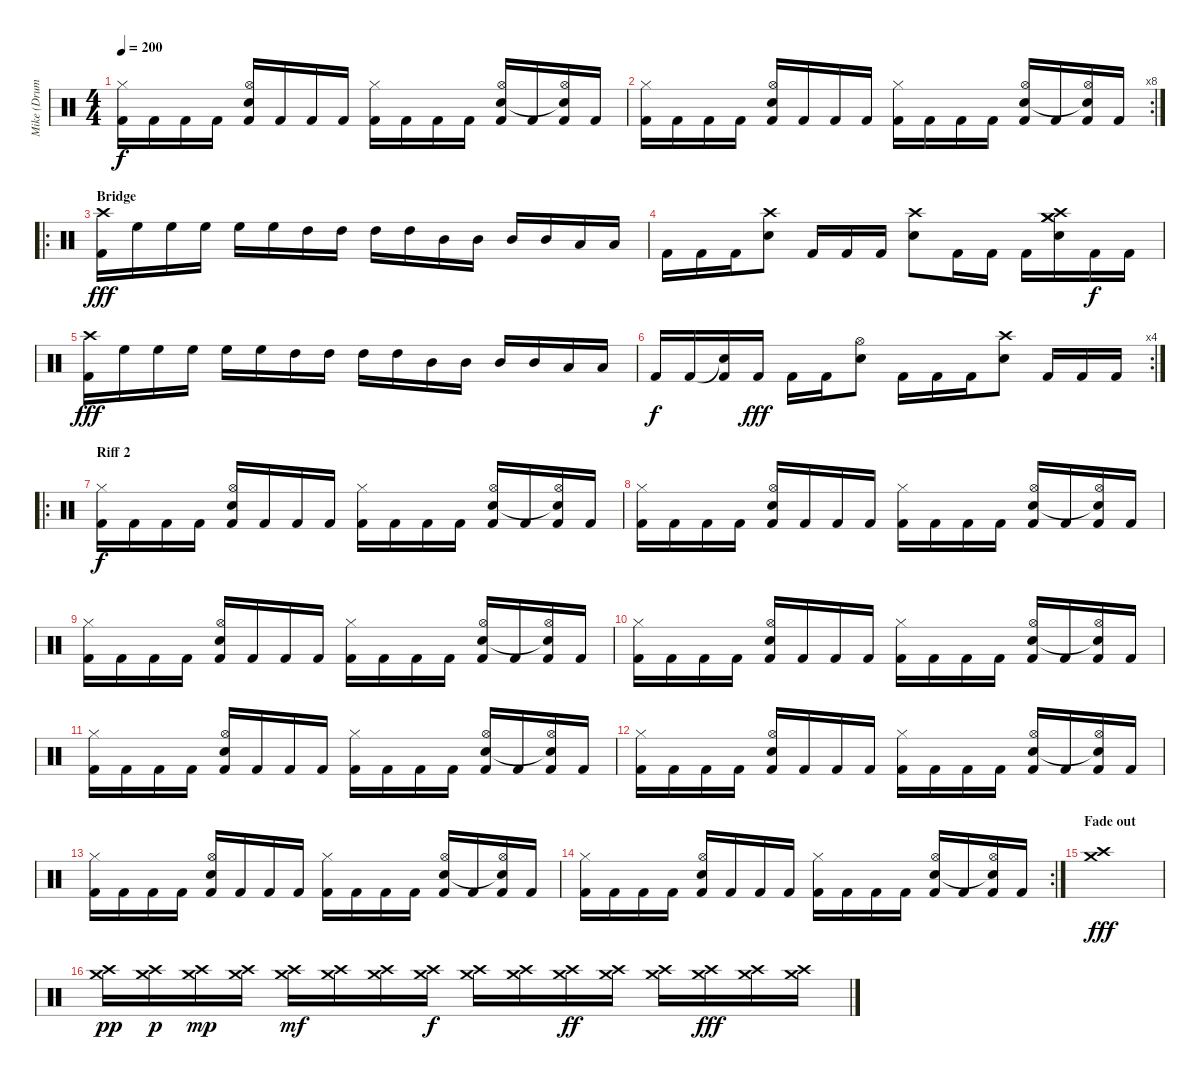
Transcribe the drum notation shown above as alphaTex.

\track ("Mike (Drums)" "Mike (Drum") {instrument percussion}
\staff {score}
\articulation defaults
\ts (4 4)
\tempo 200
\clef neutral
\ks c
("Hi-Hat (closed)" "Kick (hit) 2").16{dy f} "Kick (hit) 2".16 "Kick (hit) 2".16 "Kick (hit) 2".16 ("Hi-Hat (open)" "Snare (hit) 2" "Kick (hit) 2").16 "Kick (hit) 2".16 "Kick (hit) 2".16 "Kick (hit) 2".16 ("Hi-Hat (closed)" "Kick (hit) 2").16 "Kick (hit) 2".16 "Kick (hit) 2".16 "Kick (hit) 2".16 ("Hi-Hat (open)" "Snare (hit) 2" "Kick (hit) 2").16 "Kick (hit) 2".16 ("Hi-Hat (open)" "Snare (hit)"{t} "Kick (hit) 2").16 "Kick (hit) 2".16 |
\rc 8
("Hi-Hat (closed)" "Kick (hit) 2").16 "Kick (hit) 2".16 "Kick (hit) 2".16 "Kick (hit) 2".16 ("Hi-Hat (open)" "Snare (hit) 2" "Kick (hit) 2").16 "Kick (hit) 2".16 "Kick (hit) 2".16 "Kick (hit) 2".16 ("Hi-Hat (closed)" "Kick (hit) 2").16 "Kick (hit) 2".16 "Kick (hit) 2".16 "Kick (hit) 2".16 ("Hi-Hat (open)" "Snare (hit) 2" "Kick (hit) 2").16 "Kick (hit) 2".16 ("Hi-Hat (open)" "Snare (hit)"{t} "Kick (hit) 2").16 "Kick (hit) 2".16 |
\ro
\section ("" "Bridge")
("Crash high (hit)" "Kick (hit) 2").16{dy fff} "High Floor Tom (hit)".16 "High Floor Tom (hit)".16 "High Floor Tom (hit)".16 "High Floor Tom (hit)".16 "High Floor Tom (hit)".16 "High Tom (hit)".16 "High Tom (hit)".16 "High Tom (hit)".16 "High Tom (hit)".16 "Mid Tom (hit)".16 "Mid Tom (hit)".16 "Mid Tom (hit)".16 "Mid Tom (hit)".16 "Low Tom (hit)".16 "Low Tom (hit)".16 |
"Kick (hit) 2".16 "Kick (hit) 2".16 "Kick (hit) 2".16 ("Snare (hit) 2" "Crash high (hit)").8 "Kick (hit) 2".16 "Kick (hit) 2".16 "Kick (hit) 2".16 ("Snare (hit) 2" "Crash high (hit)").8 "Kick (hit) 2".16 "Kick (hit) 2".16 "Kick (hit) 2".16 ("Crash high (hit)" "Crash medium (hit)" "Snare (hit) 2" "Crash medium (hit)").16 "Kick (hit) 2".16{dy f} "Kick (hit) 2".16 |
("Crash high (hit)" "Kick (hit) 2").16{dy fff} "High Floor Tom (hit)".16 "High Floor Tom (hit)".16 "High Floor Tom (hit)".16 "High Floor Tom (hit)".16 "High Floor Tom (hit)".16 "High Tom (hit)".16 "High Tom (hit)".16 "High Tom (hit)".16 "High Tom (hit)".16 "Mid Tom (hit)".16 "Mid Tom (hit)".16 "Mid Tom (hit)".16 "Mid Tom (hit)".16 "Low Tom (hit)".16 "Low Tom (hit)".16 |
\rc 4 "Kick (hit) 2".16{dy f} "Kick (hit) 2".16
("Snare (hit)"{t} "Kick (hit) 2").16 "Kick (hit) 2".16{dy fff} "Kick (hit) 2".16 "Kick (hit) 2".16 ("Snare (hit) 2" "Hi-Hat (open)").8 "Kick (hit) 2".16 "Kick (hit) 2".16 "Kick (hit) 2".16 ("Snare (hit) 2" "Crash high (hit)").8 "Kick (hit) 2".16 "Kick (hit) 2".16 "Kick (hit) 2".16 |
\ro
\section ("" "Riff 2")
("Hi-Hat (closed)" "Kick (hit) 2").16{dy f} "Kick (hit) 2".16 "Kick (hit) 2".16 "Kick (hit) 2".16 ("Hi-Hat (open)" "Snare (hit) 2" "Kick (hit) 2").16 "Kick (hit) 2".16 "Kick (hit) 2".16 "Kick (hit) 2".16 ("Hi-Hat (closed)" "Kick (hit) 2").16 "Kick (hit) 2".16 "Kick (hit) 2".16 "Kick (hit) 2".16 ("Hi-Hat (open)" "Snare (hit) 2" "Kick (hit) 2").16 "Kick (hit) 2".16 ("Hi-Hat (open)" "Snare (hit)"{t} "Kick (hit) 2").16 "Kick (hit) 2".16 |
("Hi-Hat (closed)" "Kick (hit) 2").16 "Kick (hit) 2".16 "Kick (hit) 2".16 "Kick (hit) 2".16 ("Hi-Hat (open)" "Snare (hit) 2" "Kick (hit) 2").16 "Kick (hit) 2".16 "Kick (hit) 2".16 "Kick (hit) 2".16 ("Hi-Hat (closed)" "Kick (hit) 2").16 "Kick (hit) 2".16 "Kick (hit) 2".16 "Kick (hit) 2".16 ("Hi-Hat (open)" "Snare (hit) 2" "Kick (hit) 2").16 "Kick (hit) 2".16 ("Hi-Hat (open)" "Snare (hit)"{t} "Kick (hit) 2").16 "Kick (hit) 2".16 |
("Hi-Hat (closed)" "Kick (hit) 2").16 "Kick (hit) 2".16 "Kick (hit) 2".16 "Kick (hit) 2".16 ("Hi-Hat (open)" "Snare (hit) 2" "Kick (hit) 2").16 "Kick (hit) 2".16 "Kick (hit) 2".16 "Kick (hit) 2".16 ("Hi-Hat (closed)" "Kick (hit) 2").16 "Kick (hit) 2".16 "Kick (hit) 2".16 "Kick (hit) 2".16 ("Hi-Hat (open)" "Snare (hit) 2" "Kick (hit) 2").16 "Kick (hit) 2".16 ("Hi-Hat (open)" "Snare (hit)"{t} "Kick (hit) 2").16 "Kick (hit) 2".16 |
("Hi-Hat (closed)" "Kick (hit) 2").16 "Kick (hit) 2".16 "Kick (hit) 2".16 "Kick (hit) 2".16 ("Hi-Hat (open)" "Snare (hit) 2" "Kick (hit) 2").16 "Kick (hit) 2".16 "Kick (hit) 2".16 "Kick (hit) 2".16 ("Hi-Hat (closed)" "Kick (hit) 2").16 "Kick (hit) 2".16 "Kick (hit) 2".16 "Kick (hit) 2".16 ("Hi-Hat (open)" "Snare (hit) 2" "Kick (hit) 2").16 "Kick (hit) 2".16 ("Hi-Hat (open)" "Snare (hit)"{t} "Kick (hit) 2").16 "Kick (hit) 2".16 |
("Hi-Hat (closed)" "Kick (hit) 2").16 "Kick (hit) 2".16 "Kick (hit) 2".16 "Kick (hit) 2".16 ("Hi-Hat (open)" "Snare (hit) 2" "Kick (hit) 2").16 "Kick (hit) 2".16 "Kick (hit) 2".16 "Kick (hit) 2".16 ("Hi-Hat (closed)" "Kick (hit) 2").16 "Kick (hit) 2".16 "Kick (hit) 2".16 "Kick (hit) 2".16 ("Hi-Hat (open)" "Snare (hit) 2" "Kick (hit) 2").16 "Kick (hit) 2".16 ("Hi-Hat (open)" "Snare (hit)"{t} "Kick (hit) 2").16 "Kick (hit) 2".16 |
("Hi-Hat (closed)" "Kick (hit) 2").16 "Kick (hit) 2".16 "Kick (hit) 2".16 "Kick (hit) 2".16 ("Hi-Hat (open)" "Snare (hit) 2" "Kick (hit) 2").16 "Kick (hit) 2".16 "Kick (hit) 2".16 "Kick (hit) 2".16 ("Hi-Hat (closed)" "Kick (hit) 2").16 "Kick (hit) 2".16 "Kick (hit) 2".16 "Kick (hit) 2".16 ("Hi-Hat (open)" "Snare (hit) 2" "Kick (hit) 2").16 "Kick (hit) 2".16 ("Hi-Hat (open)" "Snare (hit)"{t} "Kick (hit) 2").16 "Kick (hit) 2".16 |
("Hi-Hat (closed)" "Kick (hit) 2").16 "Kick (hit) 2".16 "Kick (hit) 2".16 "Kick (hit) 2".16 ("Hi-Hat (open)" "Snare (hit) 2" "Kick (hit) 2").16 "Kick (hit) 2".16 "Kick (hit) 2".16 "Kick (hit) 2".16 ("Hi-Hat (closed)" "Kick (hit) 2").16 "Kick (hit) 2".16 "Kick (hit) 2".16 "Kick (hit) 2".16 ("Hi-Hat (open)" "Snare (hit) 2" "Kick (hit) 2").16 "Kick (hit) 2".16 ("Hi-Hat (open)" "Snare (hit)"{t} "Kick (hit) 2").16 "Kick (hit) 2".16 |
\rc 2
("Hi-Hat (closed)" "Kick (hit) 2").16 "Kick (hit) 2".16 "Kick (hit) 2".16 "Kick (hit) 2".16 ("Hi-Hat (open)" "Snare (hit) 2" "Kick (hit) 2").16 "Kick (hit) 2".16 "Kick (hit) 2".16 "Kick (hit) 2".16 ("Hi-Hat (closed)" "Kick (hit) 2").16 "Kick (hit) 2".16 "Kick (hit) 2".16 "Kick (hit) 2".16 ("Hi-Hat (open)" "Snare (hit) 2" "Kick (hit) 2").16 "Kick (hit) 2".16 ("Hi-Hat (open)" "Snare (hit)"{t} "Kick (hit) 2").16 "Kick (hit) 2".16 |
\section ("" "Fade out")
("Crash high (hit)" "Crash medium (hit)").1{dy fff} |
("Crash high (hit)" "Crash medium (hit)").16{dy pp} ("Crash high (hit)" "Crash medium (hit)").16{dy p} ("Crash high (hit)" "Crash medium (hit)").16{dy mp} ("Crash high (hit)" "Crash medium (hit)").16 ("Crash high (hit)" "Crash medium (hit)").16{dy mf} ("Crash high (hit)" "Crash medium (hit)").16 ("Crash high (hit)" "Crash medium (hit)").16 ("Crash high (hit)" "Crash medium (hit)").16{dy f} ("Crash high (hit)" "Crash medium (hit)").16 ("Crash high (hit)" "Crash medium (hit)").16 ("Crash high (hit)" "Crash medium (hit)").16{dy ff} ("Crash high (hit)" "Crash medium (hit)").16 ("Crash high (hit)" "Crash medium (hit)").16 ("Crash high (hit)" "Crash medium (hit)").16{dy fff} ("Crash high (hit)" "Crash medium (hit)").16 ("Crash high (hit)" "Crash medium (hit)").16
